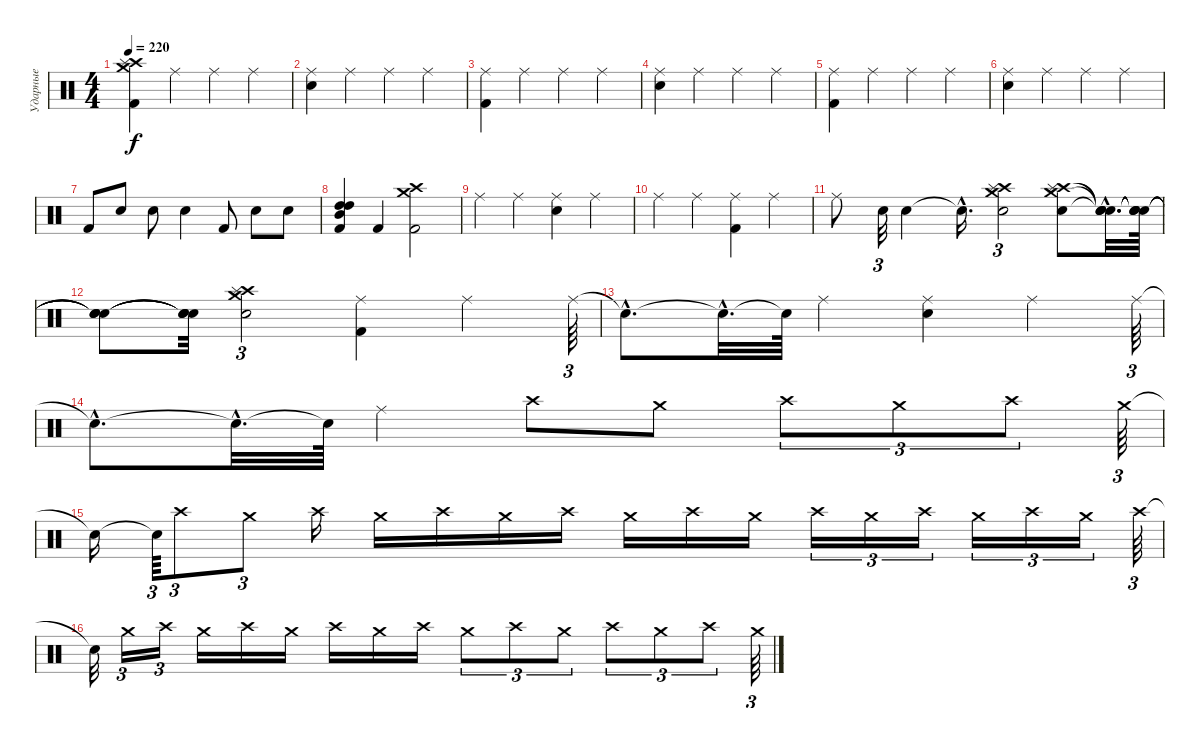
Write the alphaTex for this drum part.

\track ("Ударные" "Ударные") {instrument percussion}
\staff {score}
\articulation defaults
\ts (4 4)
\tempo 220
\clef neutral
\ks c
("Crash high (hit)" "Crash medium (hit)" "Splash (hit)" "Kick (hit) 2").4{dy f} "Ride (middle)".4 "Ride (middle)".4 "Ride (middle)".4 |
("Ride (middle)" "Snare (hit) 2").4 "Ride (middle)".4 "Ride (middle)".4 "Ride (middle)".4 |
("Ride (middle)" "Kick (hit) 2").4 "Ride (middle)".4 "Ride (middle)".4 "Ride (middle)".4 |
("Ride (middle)" "Snare (hit) 2").4 "Ride (middle)".4 "Ride (middle)".4 "Ride (middle)".4 |
("Ride (middle)" "Kick (hit) 2").4 "Ride (middle)".4 "Ride (middle)".4 "Ride (middle)".4 |
("Ride (middle)" "Snare (hit) 2").4 "Ride (middle)".4 "Ride (middle)".4 "Ride (middle)".4 |
"Kick (hit) 2".8 "Snare (hit) 2".8 "Snare (hit) 2".8 "Snare (hit) 2".4 "Kick (hit) 2".8 "Snare (hit) 2".8 "Snare (hit) 2".8 |
("High Tom (hit)" "Mid Tom (hit)" "High Tom (hit)" "Kick (hit) 2").4 "Kick (hit) 2".4 ("Crash high (hit)" "Crash medium (hit)" "Kick (hit) 2").2 |
"Ride (middle)".4 "Ride (middle)".4 ("Ride (middle)" "Snare (hit) 2").4 "Ride (middle)".4 |
"Ride (middle)".4 "Ride (middle)".4 ("Ride (middle)" "Kick (hit) 2").4 "Ride (middle)".4 |
"Ride (middle)".8 "Snare (hit) 2".32{tu (3 2)} "Snare (hit) 2".4 "Snare (hit)"{hac t}.16{d} ("Crash high (hit)" "Crash medium (hit)" "Splash (hit)" "Snare (hit) 2").2{tu (3 2)} ("Crash medium (hit)" "Crash high (hit)" "Splash (hit)" "Snare (hit) 2").8 ("Snare (hit)"{hac t} "Snare (hit)"{hac t} "Snare (hit)"{hac t} "Snare (hit)"{hac t}).32{d} ("Snare (hit)"{t} "Snare (hit)"{t} "Snare (hit)"{t} "Snare (hit)"{t}).64 |
("Snare (hit)"{t} "Snare (hit)"{t} "Snare (hit)"{t} "Snare (hit)"{t}).8 ("Snare (hit)"{t} "Snare (hit)"{t} "Snare (hit)"{t} "Snare (hit)"{t}).32 ("Crash high (hit)" "Crash medium (hit)" "Splash (hit)" "Snare (hit) 2").2{tu (3 2)} ("Ride (middle)" "Kick (hit) 2").4 "Ride (middle)".4 "Ride (middle)".64{tu (3 2)} |
"Snare (hit)"{hac t}.8{d} "Snare (hit)"{hac t}.32{d} "Snare (hit)"{t}.64 "Ride (middle)".4 ("Ride (middle)" "Snare (hit) 2").4 "Ride (middle)".4 "Ride (middle)".64{tu (3 2)} |
"Snare (hit)"{hac t}.8{d} "Snare (hit)"{hac t}.32{d} "Snare (hit)"{t}.64 "Ride (middle)".4 "Crash high (hit)".8 "Crash medium (hit)".8 "Crash high (hit)".8{tu (3 2)} "Crash medium (hit)".8{tu (3 2)} "Crash high (hit)".8{tu (3 2)} "Crash medium (hit)".64{tu (3 2)} |
"Snare (hit)"{t}.16 "Snare (hit)"{t}.64{tu (3 2)} "Crash high (hit)".8{tu (3 2)} "Crash medium (hit)".8{tu (3 2)} "Crash high (hit)".16 "Crash medium (hit)".16 "Crash high (hit)".16 "Crash medium (hit)".16 "Crash high (hit)".16 "Crash medium (hit)".16 "Crash high (hit)".16 "Crash medium (hit)".16 "Crash high (hit)".16{tu (3 2)} "Crash medium (hit)".16{tu (3 2)} "Crash high (hit)".16{tu (3 2)} "Crash medium (hit)".16{tu (3 2)} "Crash high (hit)".16{tu (3 2)} "Crash medium (hit)".16{tu (3 2)} "Crash high (hit)".64{tu (3 2)} |
"Snare (hit)"{t}.32 "Crash medium (hit)".16{tu (3 2)} "Crash high (hit)".16{tu (3 2)} "Crash medium (hit)".16 "Crash high (hit)".16 "Crash medium (hit)".16 "Crash high (hit)".16 "Crash medium (hit)".16 "Crash high (hit)".16 "Crash medium (hit)".8{tu (3 2)} "Crash high (hit)".8{tu (3 2)} "Crash medium (hit)".8{tu (3 2)} "Crash high (hit)".8{tu (3 2)} "Crash medium (hit)".8{tu (3 2)} "Crash high (hit)".8{tu (3 2)} "Crash medium (hit)".64{tu (3 2)}
